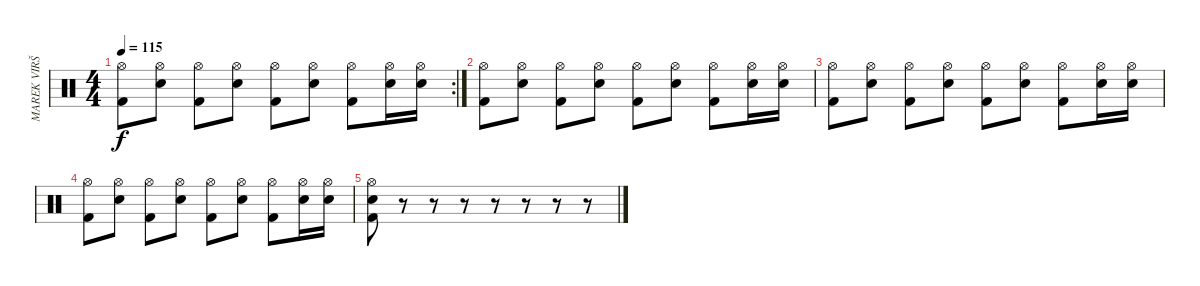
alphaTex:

\track ("MAREK VIRŠÍK" "MAREK VIRŠ") {instrument percussion}
\staff {score}
\articulation defaults
\rc 2
\ts (4 4)
\tempo 115
\clef neutral
\ks c
("Hi-Hat (open)" "Kick (hit) 2").8{dy f} ("Hi-Hat (open)" "Snare (hit) 2").8 ("Hi-Hat (open)" "Kick (hit) 2").8 ("Hi-Hat (open)" "Snare (hit) 2").8 ("Hi-Hat (open)" "Kick (hit) 2").8 ("Hi-Hat (open)" "Snare (hit) 2").8 ("Hi-Hat (open)" "Kick (hit) 2").8 ("Hi-Hat (open)" "Snare (hit) 2").16 ("Hi-Hat (open)" "Snare (hit) 2").16 |
("Hi-Hat (open)" "Kick (hit) 2").8 ("Hi-Hat (open)" "Snare (hit) 2").8 ("Hi-Hat (open)" "Kick (hit) 2").8 ("Hi-Hat (open)" "Snare (hit) 2").8 ("Hi-Hat (open)" "Kick (hit) 2").8 ("Hi-Hat (open)" "Snare (hit) 2").8 ("Hi-Hat (open)" "Kick (hit) 2").8 ("Hi-Hat (open)" "Snare (hit) 2").16 ("Hi-Hat (open)" "Snare (hit) 2").16 |
("Hi-Hat (open)" "Kick (hit) 2").8 ("Hi-Hat (open)" "Snare (hit) 2").8 ("Hi-Hat (open)" "Kick (hit) 2").8 ("Hi-Hat (open)" "Snare (hit) 2").8 ("Hi-Hat (open)" "Kick (hit) 2").8 ("Hi-Hat (open)" "Snare (hit) 2").8 ("Hi-Hat (open)" "Kick (hit) 2").8 ("Hi-Hat (open)" "Snare (hit) 2").16 ("Hi-Hat (open)" "Snare (hit) 2").16 |
("Hi-Hat (open)" "Kick (hit) 2").8 ("Hi-Hat (open)" "Snare (hit) 2").8 ("Hi-Hat (open)" "Kick (hit) 2").8 ("Hi-Hat (open)" "Snare (hit) 2").8 ("Hi-Hat (open)" "Kick (hit) 2").8 ("Hi-Hat (open)" "Snare (hit) 2").8 ("Hi-Hat (open)" "Kick (hit) 2").8 ("Hi-Hat (open)" "Snare (hit) 2").16 ("Hi-Hat (open)" "Snare (hit) 2").16 |
("Hi-Hat (open)" "Snare (hit) 2" "Kick (hit) 2").8 r.8 r.8 r.8 r.8 r.8 r.8 r.8
